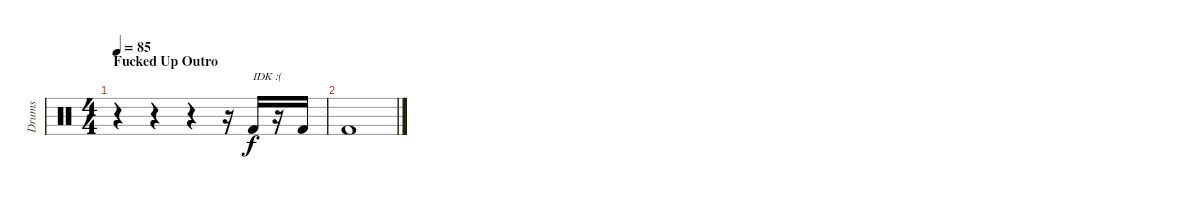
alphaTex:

\track ("Drums" "Drums") {instrument percussion}
\staff {score}
\articulation defaults
\ts (4 4)
\section ("" "Fucked Up Outro")
\tempo 85
\clef neutral
\ks c
r.4{dy f} r.4 r.4 r.16 "Kick (hit) 2".16{txt "IDK :("} r.16 "Kick (hit) 2".16 |
"Kick (hit) 2".1
